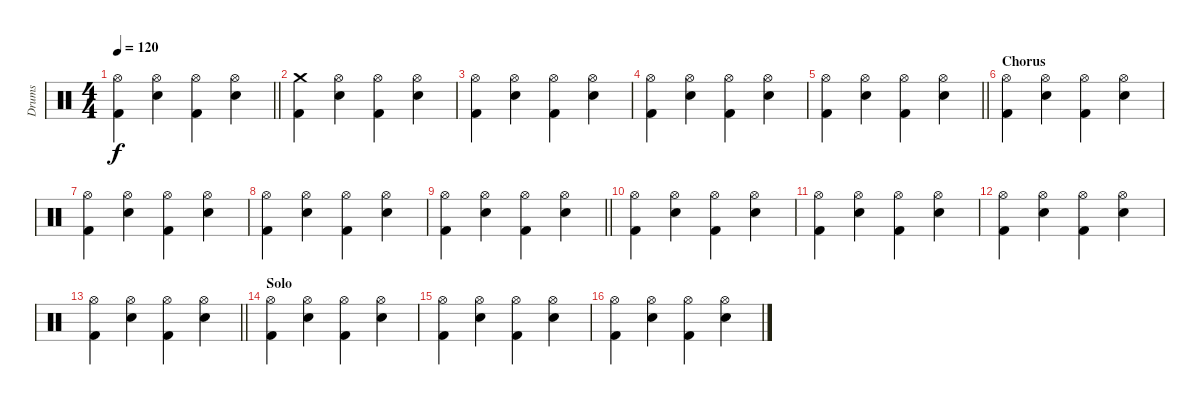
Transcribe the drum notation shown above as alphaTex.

\track ("Drums" "Drums") {instrument percussion}
\staff {score}
\articulation defaults
\ts (4 4)
\tempo 120
\clef neutral
\barLineRight lightlight
\ks c
("Hi-Hat (open)" "Kick (hit) 2").4{dy f} ("Hi-Hat (open)" "Electric Snare (hit)").4 ("Hi-Hat (open)" "Kick (hit) 2").4 ("Hi-Hat (open)" "Electric Snare (hit)").4 |
("Crash medium (hit)" "Kick (hit) 2").4 ("Hi-Hat (open)" "Electric Snare (hit)").4 ("Hi-Hat (open)" "Kick (hit) 2").4 ("Hi-Hat (open)" "Electric Snare (hit)").4 |
("Hi-Hat (open)" "Kick (hit) 2").4 ("Hi-Hat (open)" "Electric Snare (hit)").4 ("Hi-Hat (open)" "Kick (hit) 2").4 ("Hi-Hat (open)" "Electric Snare (hit)").4 |
("Hi-Hat (open)" "Kick (hit) 2").4 ("Hi-Hat (open)" "Electric Snare (hit)").4 ("Hi-Hat (open)" "Kick (hit) 2").4 ("Hi-Hat (open)" "Electric Snare (hit)").4 |
\barLineRight lightlight
("Hi-Hat (open)" "Kick (hit) 2").4 ("Hi-Hat (open)" "Electric Snare (hit)").4 ("Hi-Hat (open)" "Kick (hit) 2").4 ("Hi-Hat (open)" "Electric Snare (hit)").4 |
\section ("" "Chorus")
("Hi-Hat (open)" "Kick (hit) 2").4 ("Hi-Hat (open)" "Electric Snare (hit)").4 ("Hi-Hat (open)" "Kick (hit) 2").4 ("Hi-Hat (open)" "Electric Snare (hit)").4 |
("Hi-Hat (open)" "Kick (hit) 2").4 ("Hi-Hat (open)" "Electric Snare (hit)").4 ("Hi-Hat (open)" "Kick (hit) 2").4 ("Hi-Hat (open)" "Electric Snare (hit)").4 |
("Hi-Hat (open)" "Kick (hit) 2").4 ("Hi-Hat (open)" "Electric Snare (hit)").4 ("Hi-Hat (open)" "Kick (hit) 2").4 ("Hi-Hat (open)" "Electric Snare (hit)").4 |
\barLineRight lightlight
("Hi-Hat (open)" "Kick (hit) 2").4 ("Hi-Hat (open)" "Electric Snare (hit)").4 ("Hi-Hat (open)" "Kick (hit) 2").4 ("Hi-Hat (open)" "Electric Snare (hit)").4 |
("Hi-Hat (open)" "Kick (hit) 2").4 ("Hi-Hat (open)" "Electric Snare (hit)").4 ("Hi-Hat (open)" "Kick (hit) 2").4 ("Hi-Hat (open)" "Electric Snare (hit)").4 |
("Hi-Hat (open)" "Kick (hit) 2").4 ("Hi-Hat (open)" "Electric Snare (hit)").4 ("Hi-Hat (open)" "Kick (hit) 2").4 ("Hi-Hat (open)" "Electric Snare (hit)").4 |
("Hi-Hat (open)" "Kick (hit) 2").4 ("Hi-Hat (open)" "Electric Snare (hit)").4 ("Hi-Hat (open)" "Kick (hit) 2").4 ("Hi-Hat (open)" "Electric Snare (hit)").4 |
\barLineRight lightlight
("Hi-Hat (open)" "Kick (hit) 2").4 ("Hi-Hat (open)" "Electric Snare (hit)").4 ("Hi-Hat (open)" "Kick (hit) 2").4 ("Hi-Hat (open)" "Electric Snare (hit)").4 |
\section ("" "Solo")
("Hi-Hat (open)" "Kick (hit) 2").4 ("Hi-Hat (open)" "Electric Snare (hit)").4 ("Hi-Hat (open)" "Kick (hit) 2").4 ("Hi-Hat (open)" "Electric Snare (hit)").4 |
("Hi-Hat (open)" "Kick (hit) 2").4 ("Hi-Hat (open)" "Electric Snare (hit)").4 ("Hi-Hat (open)" "Kick (hit) 2").4 ("Hi-Hat (open)" "Electric Snare (hit)").4 |
("Hi-Hat (open)" "Kick (hit) 2").4 ("Hi-Hat (open)" "Electric Snare (hit)").4 ("Hi-Hat (open)" "Kick (hit) 2").4 ("Hi-Hat (open)" "Electric Snare (hit)").4
